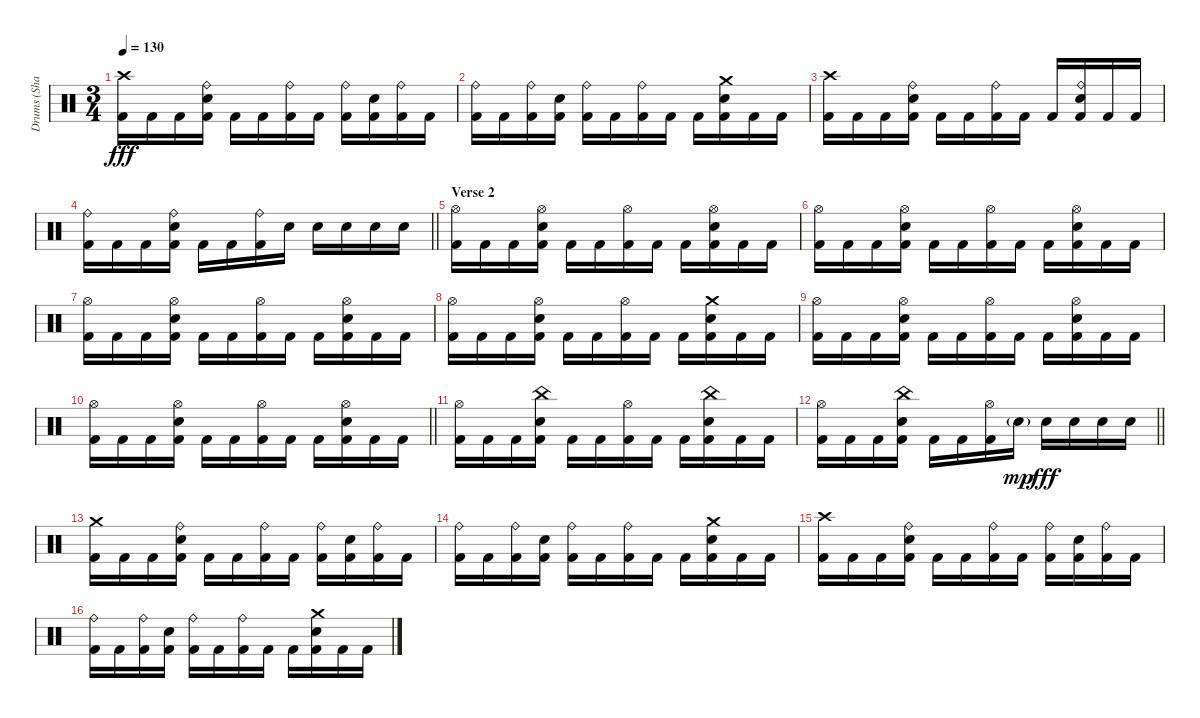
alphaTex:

\track ("Drums (Shawn)" "Drums (Sha") {instrument percussion}
\staff {score}
\articulation defaults
\ts (3 4)
\tempo 130
\clef neutral
\ks c
("Crash high (hit)" "Kick (hit) 2").16{dy fff} "Kick (hit) 2".16 "Kick (hit) 2".16 ("Ride (bell)" "Snare (hit) 2" "Kick (hit) 2").16 "Kick (hit) 2".16 "Kick (hit) 2".16 ("Ride (bell)" "Kick (hit) 2").16 "Kick (hit) 2".16 ("Ride (bell)" "Kick (hit) 2").16 ("Snare (hit) 2" "Kick (hit) 2").16 ("Ride (bell)" "Kick (hit) 2").16 "Kick (hit) 2".16 |
("Ride (bell)" "Kick (hit) 2").16 "Kick (hit) 2".16 ("Ride (bell)" "Kick (hit) 2").16 ("Snare (hit) 2" "Kick (hit) 2").16 ("Ride (bell)" "Kick (hit) 2").16 "Kick (hit) 2".16 ("Ride (bell)" "Kick (hit) 2").16 "Kick (hit) 2".16 "Kick (hit) 2".16 ("Crash medium (hit)" "Snare (hit) 2" "Kick (hit) 2").16 "Kick (hit) 2".16 "Kick (hit) 2".16 |
("Crash high (hit)" "Kick (hit) 2").16 "Kick (hit) 2".16 "Kick (hit) 2".16 ("Ride (bell)" "Snare (hit) 2" "Kick (hit) 2").16 "Kick (hit) 2".16 "Kick (hit) 2".16 ("Ride (bell)" "Kick (hit) 2").16 "Kick (hit) 2".16 "Kick (hit) 2".16 ("Ride (bell)" "Snare (hit) 2" "Kick (hit) 2").16 "Kick (hit) 2".16 "Kick (hit) 2".16 |
\barLineRight lightlight
("Ride (bell)" "Kick (hit) 2").16 "Kick (hit) 2".16 "Kick (hit) 2".16 ("Ride (bell)" "Snare (hit) 2" "Kick (hit) 2").16 "Kick (hit) 2".16 "Kick (hit) 2".16 ("Ride (bell)" "Kick (hit) 2").16 "Snare (hit) 2".16 "Snare (hit) 2".16 "Snare (hit) 2".16 "Snare (hit) 2".16 "Snare (hit) 2".16 |
\section ("" "Verse 2")
("Hi-Hat (open)" "Kick (hit) 2").16 "Kick (hit) 2".16 "Kick (hit) 2".16 ("Hi-Hat (open)" "Snare (hit) 2" "Kick (hit) 2").16 "Kick (hit) 2".16 "Kick (hit) 2".16 ("Hi-Hat (open)" "Kick (hit) 2").16 "Kick (hit) 2".16 "Kick (hit) 2".16 ("Hi-Hat (open)" "Snare (hit) 2" "Kick (hit) 2").16 "Kick (hit) 2".16 "Kick (hit) 2".16 |
("Hi-Hat (open)" "Kick (hit) 2").16 "Kick (hit) 2".16 "Kick (hit) 2".16 ("Hi-Hat (open)" "Snare (hit) 2" "Kick (hit) 2").16 "Kick (hit) 2".16 "Kick (hit) 2".16 ("Hi-Hat (open)" "Kick (hit) 2").16 "Kick (hit) 2".16 "Kick (hit) 2".16 ("Hi-Hat (open)" "Snare (hit) 2" "Kick (hit) 2").16 "Kick (hit) 2".16 "Kick (hit) 2".16 |
("Hi-Hat (open)" "Kick (hit) 2").16 "Kick (hit) 2".16 "Kick (hit) 2".16 ("Hi-Hat (open)" "Snare (hit) 2" "Kick (hit) 2").16 "Kick (hit) 2".16 "Kick (hit) 2".16 ("Hi-Hat (open)" "Kick (hit) 2").16 "Kick (hit) 2".16 "Kick (hit) 2".16 ("Hi-Hat (open)" "Snare (hit) 2" "Kick (hit) 2").16 "Kick (hit) 2".16 "Kick (hit) 2".16 |
("Hi-Hat (open)" "Kick (hit) 2").16 "Kick (hit) 2".16 "Kick (hit) 2".16 ("Hi-Hat (open)" "Snare (hit) 2" "Kick (hit) 2").16 "Kick (hit) 2".16 "Kick (hit) 2".16 ("Hi-Hat (open)" "Kick (hit) 2").16 "Kick (hit) 2".16 "Kick (hit) 2".16 ("Crash medium (hit)" "Snare (hit) 2" "Kick (hit) 2").16 "Kick (hit) 2".16 "Kick (hit) 2".16 |
("Hi-Hat (open)" "Kick (hit) 2").16 "Kick (hit) 2".16 "Kick (hit) 2".16 ("Hi-Hat (open)" "Snare (hit) 2" "Kick (hit) 2").16 "Kick (hit) 2".16 "Kick (hit) 2".16 ("Hi-Hat (open)" "Kick (hit) 2").16 "Kick (hit) 2".16 "Kick (hit) 2".16 ("Hi-Hat (open)" "Snare (hit) 2" "Kick (hit) 2").16 "Kick (hit) 2".16 "Kick (hit) 2".16 |
\barLineRight lightlight
("Hi-Hat (open)" "Kick (hit) 2").16 "Kick (hit) 2".16 "Kick (hit) 2".16 ("Hi-Hat (open)" "Snare (hit) 2" "Kick (hit) 2").16 "Kick (hit) 2".16 "Kick (hit) 2".16 ("Hi-Hat (open)" "Kick (hit) 2").16 "Kick (hit) 2".16 "Kick (hit) 2".16 ("Hi-Hat (open)" "Snare (hit) 2" "Kick (hit) 2").16 "Kick (hit) 2".16 "Kick (hit) 2".16 |
("Hi-Hat (open)" "Kick (hit) 2").16 "Kick (hit) 2".16 "Kick (hit) 2".16 ("China (hit)" "Snare (hit) 2" "Kick (hit) 2").16 "Kick (hit) 2".16 "Kick (hit) 2".16 ("Hi-Hat (open)" "Kick (hit) 2").16 "Kick (hit) 2".16 "Kick (hit) 2".16 ("China (hit)" "Snare (hit) 2" "Kick (hit) 2").16 "Kick (hit) 2".16 "Kick (hit) 2".16 |
\barLineRight lightlight
("Hi-Hat (open)" "Kick (hit) 2").16 "Kick (hit) 2".16 "Kick (hit) 2".16 ("China (hit)" "Snare (hit) 2" "Kick (hit) 2").16 "Kick (hit) 2".16 "Kick (hit) 2".16 ("Hi-Hat (open)" "Kick (hit) 2").16 "Snare (hit) 2"{g}.16{dy mp} "Snare (hit) 2".16{dy fff} "Snare (hit) 2".16 "Snare (hit) 2".16 "Snare (hit) 2".16 |
("Crash medium (hit)" "Kick (hit) 2").16 "Kick (hit) 2".16 "Kick (hit) 2".16 ("Ride (bell)" "Snare (hit) 2" "Kick (hit) 2").16 "Kick (hit) 2".16 "Kick (hit) 2".16 ("Ride (bell)" "Kick (hit) 2").16 "Kick (hit) 2".16 ("Ride (bell)" "Kick (hit) 2").16 ("Snare (hit) 2" "Kick (hit) 2").16 ("Ride (bell)" "Kick (hit) 2").16 "Kick (hit) 2".16 |
("Ride (bell)" "Kick (hit) 2").16 "Kick (hit) 2".16 ("Ride (bell)" "Kick (hit) 2").16 ("Snare (hit) 2" "Kick (hit) 2").16 ("Ride (bell)" "Kick (hit) 2").16 "Kick (hit) 2".16 ("Ride (bell)" "Kick (hit) 2").16 "Kick (hit) 2".16 "Kick (hit) 2".16 ("Crash medium (hit)" "Snare (hit) 2" "Kick (hit) 2").16 "Kick (hit) 2".16 "Kick (hit) 2".16 |
("Crash high (hit)" "Kick (hit) 2").16 "Kick (hit) 2".16 "Kick (hit) 2".16 ("Ride (bell)" "Snare (hit) 2" "Kick (hit) 2").16 "Kick (hit) 2".16 "Kick (hit) 2".16 ("Ride (bell)" "Kick (hit) 2").16 "Kick (hit) 2".16 ("Ride (bell)" "Kick (hit) 2").16 ("Snare (hit) 2" "Kick (hit) 2").16 ("Ride (bell)" "Kick (hit) 2").16 "Kick (hit) 2".16 |
("Ride (bell)" "Kick (hit) 2").16 "Kick (hit) 2".16 ("Ride (bell)" "Kick (hit) 2").16 ("Snare (hit) 2" "Kick (hit) 2").16 ("Ride (bell)" "Kick (hit) 2").16 "Kick (hit) 2".16 ("Ride (bell)" "Kick (hit) 2").16 "Kick (hit) 2".16 "Kick (hit) 2".16 ("Crash medium (hit)" "Snare (hit) 2" "Kick (hit) 2").16 "Kick (hit) 2".16 "Kick (hit) 2".16
